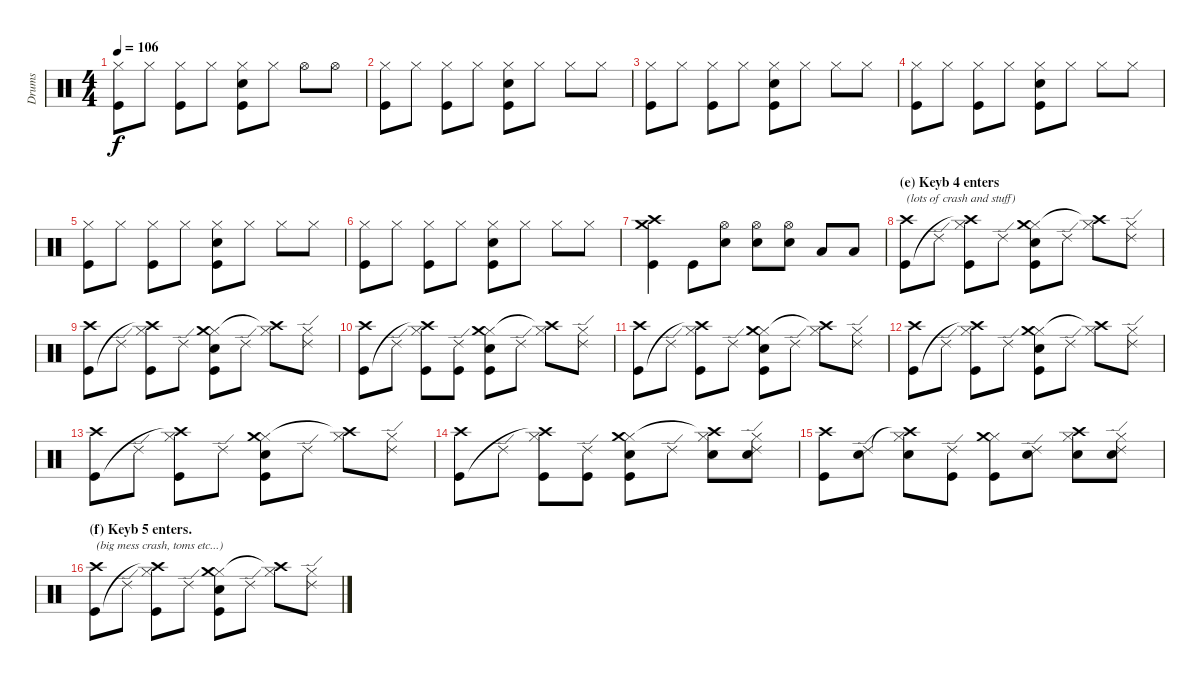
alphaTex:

\track ("Drums" "Drums") {instrument percussion}
\staff {score}
\articulation defaults
\ts (4 4)
\tempo 106
\clef neutral
\ks c
("Hi-Hat (closed)" "Kick (hit)").8{dy f} "Hi-Hat (closed)".8 ("Hi-Hat (closed)" "Kick (hit)").8 "Hi-Hat (closed)".8 ("Hi-Hat (closed)" "Snare (hit) 2" "Kick (hit)").8 "Hi-Hat (closed)".8 "Hi-Hat (open)".8 "Hi-Hat (open)".8 |
("Hi-Hat (closed)" "Kick (hit)").8 "Hi-Hat (closed)".8 ("Hi-Hat (closed)" "Kick (hit)").8 "Hi-Hat (closed)".8 ("Hi-Hat (closed)" "Snare (hit) 2" "Kick (hit)").8 "Hi-Hat (closed)".8 "Hi-Hat (closed)".8 "Hi-Hat (closed)".8 |
("Hi-Hat (closed)" "Kick (hit)").8 "Hi-Hat (closed)".8 ("Hi-Hat (closed)" "Kick (hit)").8 "Hi-Hat (closed)".8 ("Hi-Hat (closed)" "Snare (hit) 2" "Kick (hit)").8 "Hi-Hat (closed)".8 "Hi-Hat (closed)".8 "Hi-Hat (closed)".8 |
("Hi-Hat (closed)" "Kick (hit)").8 "Hi-Hat (closed)".8 ("Hi-Hat (closed)" "Kick (hit)").8 "Hi-Hat (closed)".8 ("Hi-Hat (closed)" "Snare (hit) 2" "Kick (hit)").8 "Hi-Hat (closed)".8 "Hi-Hat (closed)".8 "Hi-Hat (closed)".8 |
("Hi-Hat (closed)" "Kick (hit)").8 "Hi-Hat (closed)".8 ("Hi-Hat (closed)" "Kick (hit)").8 "Hi-Hat (closed)".8 ("Hi-Hat (closed)" "Snare (hit) 2" "Kick (hit)").8 "Hi-Hat (closed)".8 "Hi-Hat (closed)".8 "Hi-Hat (closed)".8 |
("Hi-Hat (closed)" "Kick (hit)").8 "Hi-Hat (closed)".8 ("Hi-Hat (closed)" "Kick (hit)").8 "Hi-Hat (closed)".8 ("Hi-Hat (closed)" "Snare (hit) 2" "Kick (hit)").8 "Hi-Hat (closed)".8 "Hi-Hat (closed)".8 "Hi-Hat (closed)".8 |
("Crash high (hit)" "Crash medium (hit)" "Kick (hit)").4 "Kick (hit)".8 ("Hi-Hat (open)" "Snare (hit) 2").8 ("Hi-Hat (open)" "Snare (hit) 2").8 ("Hi-Hat (open)" "Snare (hit) 2").8 "Low Tom (hit)".8 "Low Tom (hit)".8 |
\section ("" "(e) Keyb 4 enters")
("Crash high (hit)" "Kick (hit)").8{txt "(lots of crash and stuff)"} "Ride (edge) 2".8 ("Hi-Hat (closed)" "Crash high (hit)"{t} "Kick (hit)").8 "Ride (edge) 2".8 ("Hi-Hat (closed)" "Crash medium (hit)" "Snare (hit) 2" "Kick (hit)").8 "Ride (edge) 2".8 ("Hi-Hat (closed)" "Crash high (hit)"{t}).8 ("Hi-Hat (closed)" "Ride (edge) 2").8 |
("Crash high (hit)" "Kick (hit)").8 "Ride (edge) 2".8 ("Hi-Hat (closed)" "Crash high (hit)"{t} "Kick (hit)").8 "Ride (edge) 2".8 ("Hi-Hat (closed)" "Crash medium (hit)" "Snare (hit) 2" "Kick (hit)").8 "Ride (edge) 2".8 ("Hi-Hat (closed)" "Crash high (hit)"{t}).8 ("Hi-Hat (closed)" "Ride (edge) 2").8 |
("Crash high (hit)" "Kick (hit)").8 "Ride (edge) 2".8 ("Hi-Hat (closed)" "Crash high (hit)"{t} "Kick (hit)").8 ("Ride (edge) 2" "Kick (hit)").8 ("Hi-Hat (closed)" "Crash medium (hit)" "Snare (hit) 2" "Kick (hit)").8 "Ride (edge) 2".8 ("Hi-Hat (closed)" "Crash high (hit)"{t}).8 ("Hi-Hat (closed)" "Ride (edge) 2").8 |
("Crash high (hit)" "Kick (hit)").8 "Ride (edge) 2".8 ("Hi-Hat (closed)" "Crash high (hit)"{t} "Kick (hit)").8 "Ride (edge) 2".8 ("Hi-Hat (closed)" "Crash medium (hit)" "Snare (hit) 2" "Kick (hit)").8 "Ride (edge) 2".8 ("Hi-Hat (closed)" "Crash high (hit)"{t}).8 ("Hi-Hat (closed)" "Ride (edge) 2").8 |
("Crash high (hit)" "Kick (hit)").8 "Ride (edge) 2".8 ("Hi-Hat (closed)" "Crash high (hit)"{t} "Kick (hit)").8 "Ride (edge) 2".8 ("Hi-Hat (closed)" "Crash medium (hit)" "Snare (hit) 2" "Kick (hit)").8 "Ride (edge) 2".8 ("Hi-Hat (closed)" "Crash high (hit)"{t}).8 ("Hi-Hat (closed)" "Ride (edge) 2").8 |
("Crash high (hit)" "Kick (hit)").8 "Ride (edge) 2".8 ("Hi-Hat (closed)" "Crash high (hit)"{t} "Kick (hit)").8 "Ride (edge) 2".8 ("Hi-Hat (closed)" "Crash medium (hit)" "Snare (hit) 2" "Kick (hit)").8 "Ride (edge) 2".8 ("Hi-Hat (closed)" "Crash high (hit)"{t}).8 ("Hi-Hat (closed)" "Ride (edge) 2").8 |
("Crash high (hit)" "Kick (hit)").8 "Ride (edge) 2".8 ("Hi-Hat (closed)" "Crash high (hit)"{t} "Kick (hit)").8 ("Ride (edge) 2" "Kick (hit)").8 ("Hi-Hat (closed)" "Crash medium (hit)" "Snare (hit) 2" "Kick (hit)").8 "Ride (edge) 2".8 ("Hi-Hat (closed)" "Crash high (hit)"{t} "Snare (hit) 2").8 ("Hi-Hat (closed)" "Ride (edge) 2" "Snare (hit) 2").8 |
("Crash high (hit)" "Kick (hit)").8 ("Ride (edge) 2" "Snare (hit) 2").8 ("Hi-Hat (closed)" "Crash high (hit)"{t} "Snare (hit) 2").8 ("Ride (edge) 2" "Kick (hit)").8 ("Hi-Hat (closed)" "Crash medium (hit)" "Kick (hit)").8 ("Ride (edge) 2" "Snare (hit) 2").8 ("Hi-Hat (closed)" "Crash high (hit)" "Snare (hit) 2").8 ("Hi-Hat (closed)" "Ride (edge) 2" "Snare (hit) 2").8 |
\section ("" "(f) Keyb 5 enters.")
("Crash high (hit)" "Kick (hit)").8{txt "(big mess crash, toms etc...)"} "Ride (edge) 2".8 ("Hi-Hat (closed)" "Crash high (hit)"{t} "Kick (hit)").8 "Ride (edge) 2".8 ("Hi-Hat (closed)" "Crash medium (hit)" "Snare (hit) 2" "Kick (hit)").8 "Ride (edge) 2".8 ("Hi-Hat (closed)" "Crash high (hit)"{t}).8 ("Hi-Hat (closed)" "Ride (edge) 2").8
